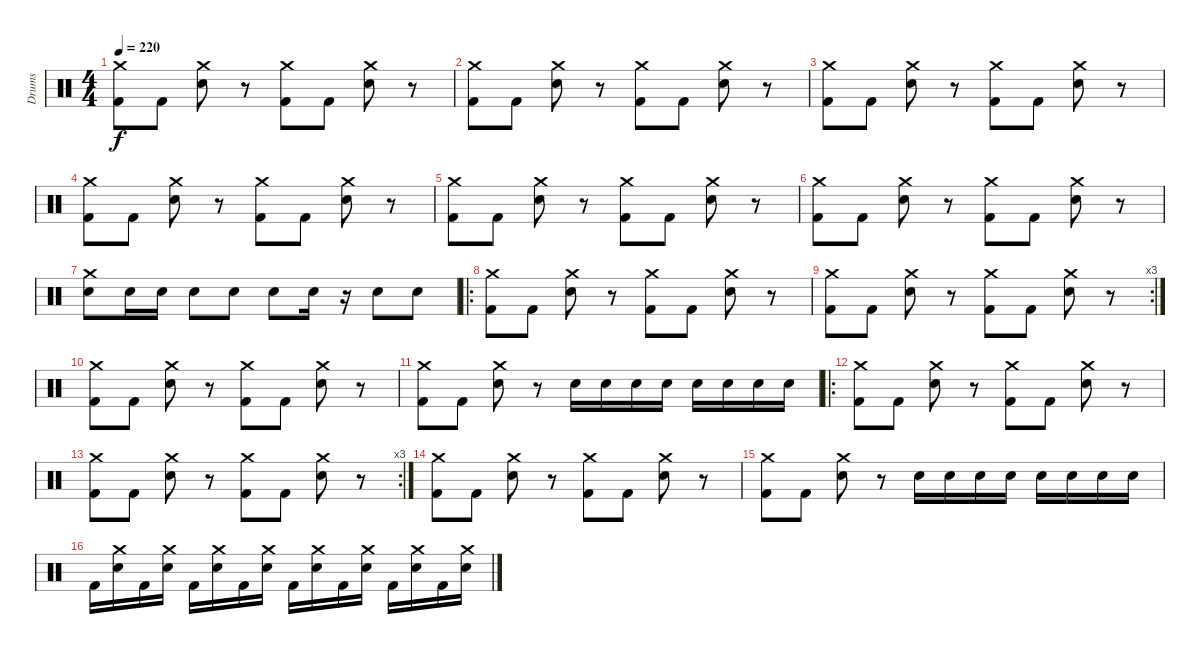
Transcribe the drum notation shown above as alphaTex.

\track ("Drums" "Drums") {instrument percussion}
\staff {score}
\articulation defaults
\ts (4 4)
\tempo 220
\clef neutral
\ks c
("Crash medium (hit)" "Kick (hit) 2").8{dy f} "Kick (hit) 2".8 ("Crash medium (hit)" "Electric Snare (hit)").8 r.8 ("Crash medium (hit)" "Kick (hit) 2").8 "Kick (hit) 2".8 ("Crash medium (hit)" "Electric Snare (hit)").8 r.8 |
("Crash medium (hit)" "Kick (hit) 2").8 "Kick (hit) 2".8 ("Crash medium (hit)" "Electric Snare (hit)").8 r.8 ("Crash medium (hit)" "Kick (hit) 2").8 "Kick (hit) 2".8 ("Crash medium (hit)" "Electric Snare (hit)").8 r.8 |
("Crash medium (hit)" "Kick (hit) 2").8 "Kick (hit) 2".8 ("Crash medium (hit)" "Electric Snare (hit)").8 r.8 ("Crash medium (hit)" "Kick (hit) 2").8 "Kick (hit) 2".8 ("Crash medium (hit)" "Electric Snare (hit)").8 r.8 |
("Crash medium (hit)" "Kick (hit) 2").8 "Kick (hit) 2".8 ("Crash medium (hit)" "Electric Snare (hit)").8 r.8 ("Crash medium (hit)" "Kick (hit) 2").8 "Kick (hit) 2".8 ("Crash medium (hit)" "Electric Snare (hit)").8 r.8 |
("Crash medium (hit)" "Kick (hit) 2").8 "Kick (hit) 2".8 ("Crash medium (hit)" "Electric Snare (hit)").8 r.8 ("Crash medium (hit)" "Kick (hit) 2").8 "Kick (hit) 2".8 ("Crash medium (hit)" "Electric Snare (hit)").8 r.8 |
("Crash medium (hit)" "Kick (hit) 2").8 "Kick (hit) 2".8 ("Crash medium (hit)" "Electric Snare (hit)").8 r.8 ("Crash medium (hit)" "Kick (hit) 2").8 "Kick (hit) 2".8 ("Crash medium (hit)" "Electric Snare (hit)").8 r.8 |
("Crash medium (hit)" "Electric Snare (hit)").8 "Electric Snare (hit)".16 "Electric Snare (hit)".16 "Electric Snare (hit)".8 "Electric Snare (hit)".8 "Electric Snare (hit)".8 "Electric Snare (hit)".16 r.16 "Electric Snare (hit)".8 "Electric Snare (hit)".8 |
\ro
("Crash medium (hit)" "Kick (hit) 2").8 "Kick (hit) 2".8 ("Crash medium (hit)" "Electric Snare (hit)").8 r.8 ("Crash medium (hit)" "Kick (hit) 2").8 "Kick (hit) 2".8 ("Crash medium (hit)" "Electric Snare (hit)").8 r.8 |
\rc 3
("Crash medium (hit)" "Kick (hit) 2").8 "Kick (hit) 2".8 ("Crash medium (hit)" "Electric Snare (hit)").8 r.8 ("Crash medium (hit)" "Kick (hit) 2").8 "Kick (hit) 2".8 ("Crash medium (hit)" "Electric Snare (hit)").8 r.8 |
("Crash medium (hit)" "Kick (hit) 2").8 "Kick (hit) 2".8 ("Crash medium (hit)" "Electric Snare (hit)").8 r.8 ("Crash medium (hit)" "Kick (hit) 2").8 "Kick (hit) 2".8 ("Crash medium (hit)" "Electric Snare (hit)").8 r.8 |
("Crash medium (hit)" "Kick (hit) 2").8 "Kick (hit) 2".8 ("Crash medium (hit)" "Electric Snare (hit)").8 r.8 "Electric Snare (hit)".16 "Electric Snare (hit)".16 "Electric Snare (hit)".16 "Electric Snare (hit)".16 "Electric Snare (hit)".16 "Electric Snare (hit)".16 "Electric Snare (hit)".16 "Electric Snare (hit)".16 |
\ro
("Crash medium (hit)" "Kick (hit) 2").8 "Kick (hit) 2".8 ("Crash medium (hit)" "Electric Snare (hit)").8 r.8 ("Crash medium (hit)" "Kick (hit) 2").8 "Kick (hit) 2".8 ("Crash medium (hit)" "Electric Snare (hit)").8 r.8 |
\rc 3
("Crash medium (hit)" "Kick (hit) 2").8 "Kick (hit) 2".8 ("Crash medium (hit)" "Electric Snare (hit)").8 r.8 ("Crash medium (hit)" "Kick (hit) 2").8 "Kick (hit) 2".8 ("Crash medium (hit)" "Electric Snare (hit)").8 r.8 |
("Crash medium (hit)" "Kick (hit) 2").8 "Kick (hit) 2".8 ("Crash medium (hit)" "Electric Snare (hit)").8 r.8 ("Crash medium (hit)" "Kick (hit) 2").8 "Kick (hit) 2".8 ("Crash medium (hit)" "Electric Snare (hit)").8 r.8 |
("Crash medium (hit)" "Kick (hit) 2").8 "Kick (hit) 2".8 ("Crash medium (hit)" "Electric Snare (hit)").8 r.8 "Electric Snare (hit)".16 "Electric Snare (hit)".16 "Electric Snare (hit)".16 "Electric Snare (hit)".16 "Electric Snare (hit)".16 "Electric Snare (hit)".16 "Electric Snare (hit)".16 "Electric Snare (hit)".16 |
"Kick (hit) 2".16 ("Crash medium (hit)" "Electric Snare (hit)").16 "Kick (hit) 2".16 ("Crash medium (hit)" "Electric Snare (hit)").16 "Kick (hit) 2".16 ("Crash medium (hit)" "Electric Snare (hit)").16 "Kick (hit) 2".16 ("Crash medium (hit)" "Electric Snare (hit)").16 "Kick (hit) 2".16 ("Crash medium (hit)" "Electric Snare (hit)").16 "Kick (hit) 2".16 ("Crash medium (hit)" "Electric Snare (hit)").16 "Kick (hit) 2".16 ("Crash medium (hit)" "Electric Snare (hit)").16 "Kick (hit) 2".16 ("Crash medium (hit)" "Electric Snare (hit)").16
